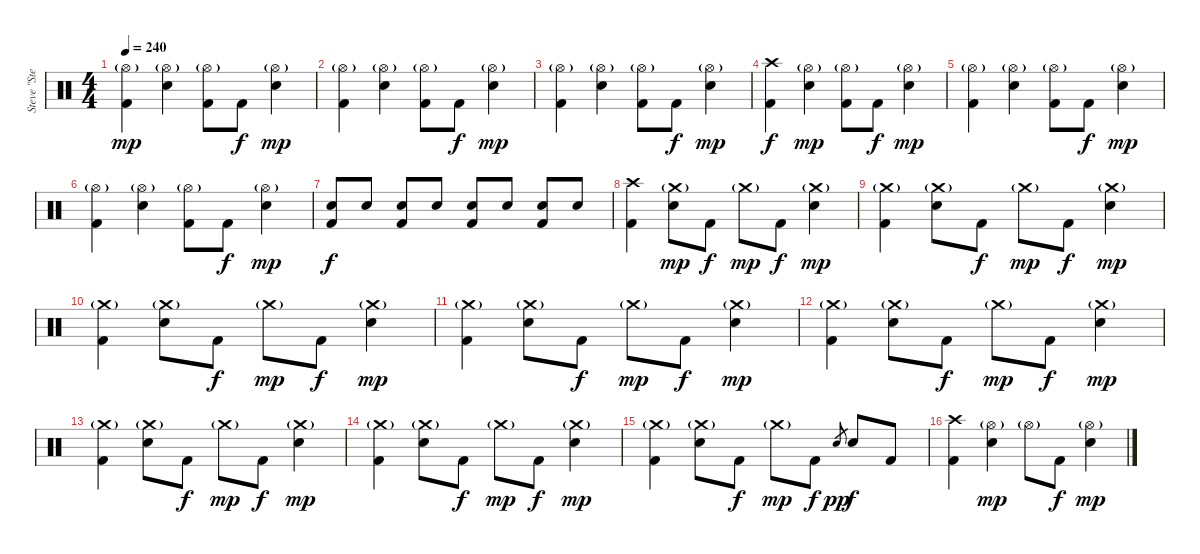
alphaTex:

\track ("Steve \"Stevo32\" Jocz " "Steve \"Ste") {instrument percussion}
\staff {score}
\articulation defaults
\ts (4 4)
\tempo 240
\clef neutral
\ks c
("Hi-Hat (open)"{g} "Kick (hit) 2").4{dy mp} ("Hi-Hat (open)"{g} "Electric Snare (hit)").4 ("Hi-Hat (open)"{g} "Kick (hit) 2").8 "Kick (hit) 2".8{dy f} ("Hi-Hat (open)"{g} "Electric Snare (hit)").4{dy mp} |
("Hi-Hat (open)"{g} "Kick (hit) 2").4 ("Hi-Hat (open)"{g} "Electric Snare (hit)").4 ("Hi-Hat (open)"{g} "Kick (hit) 2").8 "Kick (hit) 2".8{dy f} ("Hi-Hat (open)"{g} "Electric Snare (hit)").4{dy mp} |
("Hi-Hat (open)"{g} "Kick (hit) 2").4 ("Hi-Hat (open)"{g} "Electric Snare (hit)").4 ("Hi-Hat (open)"{g} "Kick (hit) 2").8 "Kick (hit) 2".8{dy f} ("Hi-Hat (open)"{g} "Electric Snare (hit)").4{dy mp} |
("Crash high (hit)" "Kick (hit) 2").4{dy f} ("Hi-Hat (open)"{g} "Electric Snare (hit)").4{dy mp} ("Hi-Hat (open)"{g} "Kick (hit) 2").8 "Kick (hit) 2".8{dy f} ("Hi-Hat (open)"{g} "Electric Snare (hit)").4{dy mp} |
("Hi-Hat (open)"{g} "Kick (hit) 2").4 ("Hi-Hat (open)"{g} "Electric Snare (hit)").4 ("Hi-Hat (open)"{g} "Kick (hit) 2").8 "Kick (hit) 2".8{dy f} ("Hi-Hat (open)"{g} "Electric Snare (hit)").4{dy mp} |
("Hi-Hat (open)"{g} "Kick (hit) 2").4 ("Hi-Hat (open)"{g} "Electric Snare (hit)").4 ("Hi-Hat (open)"{g} "Kick (hit) 2").8 "Kick (hit) 2".8{dy f} ("Hi-Hat (open)"{g} "Electric Snare (hit)").4{dy mp} |
("Electric Snare (hit)" "Kick (hit) 2").8{dy f} "Electric Snare (hit)".8 ("Electric Snare (hit)" "Kick (hit) 2").8 "Electric Snare (hit)".8 ("Electric Snare (hit)" "Kick (hit) 2").8 "Electric Snare (hit)".8 ("Electric Snare (hit)" "Kick (hit) 2").8 "Electric Snare (hit)".8 |
("Crash high (hit)" "Kick (hit) 2").4 ("Crash medium (hit)"{g} "Electric Snare (hit)").8{dy mp} "Kick (hit) 2".8{dy f} "Crash medium (hit)"{g}.8{dy mp} "Kick (hit) 2".8{dy f} ("Crash medium (hit)"{g} "Electric Snare (hit)").4{dy mp} |
("Crash medium (hit)"{g} "Kick (hit) 2").4 ("Crash medium (hit)"{g} "Electric Snare (hit)").8 "Kick (hit) 2".8{dy f} "Crash medium (hit)"{g}.8{dy mp} "Kick (hit) 2".8{dy f} ("Crash medium (hit)"{g} "Electric Snare (hit)").4{dy mp} |
("Crash medium (hit)"{g} "Kick (hit) 2").4 ("Crash medium (hit)"{g} "Electric Snare (hit)").8 "Kick (hit) 2".8{dy f} "Crash medium (hit)"{g}.8{dy mp} "Kick (hit) 2".8{dy f} ("Crash medium (hit)"{g} "Electric Snare (hit)").4{dy mp} |
("Crash medium (hit)"{g} "Kick (hit) 2").4 ("Crash medium (hit)"{g} "Electric Snare (hit)").8 "Kick (hit) 2".8{dy f} "Crash medium (hit)"{g}.8{dy mp} "Kick (hit) 2".8{dy f} ("Crash medium (hit)"{g} "Electric Snare (hit)").4{dy mp} |
("Crash medium (hit)"{g} "Kick (hit) 2").4 ("Crash medium (hit)"{g} "Electric Snare (hit)").8 "Kick (hit) 2".8{dy f} "Crash medium (hit)"{g}.8{dy mp} "Kick (hit) 2".8{dy f} ("Crash medium (hit)"{g} "Electric Snare (hit)").4{dy mp} |
("Crash medium (hit)"{g} "Kick (hit) 2").4 ("Crash medium (hit)"{g} "Electric Snare (hit)").8 "Kick (hit) 2".8{dy f} "Crash medium (hit)"{g}.8{dy mp} "Kick (hit) 2".8{dy f} ("Crash medium (hit)"{g} "Electric Snare (hit)").4{dy mp} |
("Crash medium (hit)"{g} "Kick (hit) 2").4 ("Crash medium (hit)"{g} "Electric Snare (hit)").8 "Kick (hit) 2".8{dy f} "Crash medium (hit)"{g}.8{dy mp} "Kick (hit) 2".8{dy f} ("Crash medium (hit)"{g} "Electric Snare (hit)").4{dy mp} |
("Crash medium (hit)"{g} "Kick (hit) 2").4 ("Crash medium (hit)"{g} "Electric Snare (hit)").8 "Kick (hit) 2".8{dy f} "Crash medium (hit)"{g}.8{dy mp} "Kick (hit) 2".8{dy f} "Electric Snare (hit)".8{gr dy pp} "Electric Snare (hit)".8{dy f} "Kick (hit) 2".8 |
("Crash high (hit)" "Kick (hit) 2").4 ("Hi-Hat (open)"{g} "Electric Snare (hit)").4{dy mp} "Hi-Hat (open)"{g}.8 "Kick (hit) 2".8{dy f} ("Hi-Hat (open)"{g} "Electric Snare (hit)").4{dy mp}
